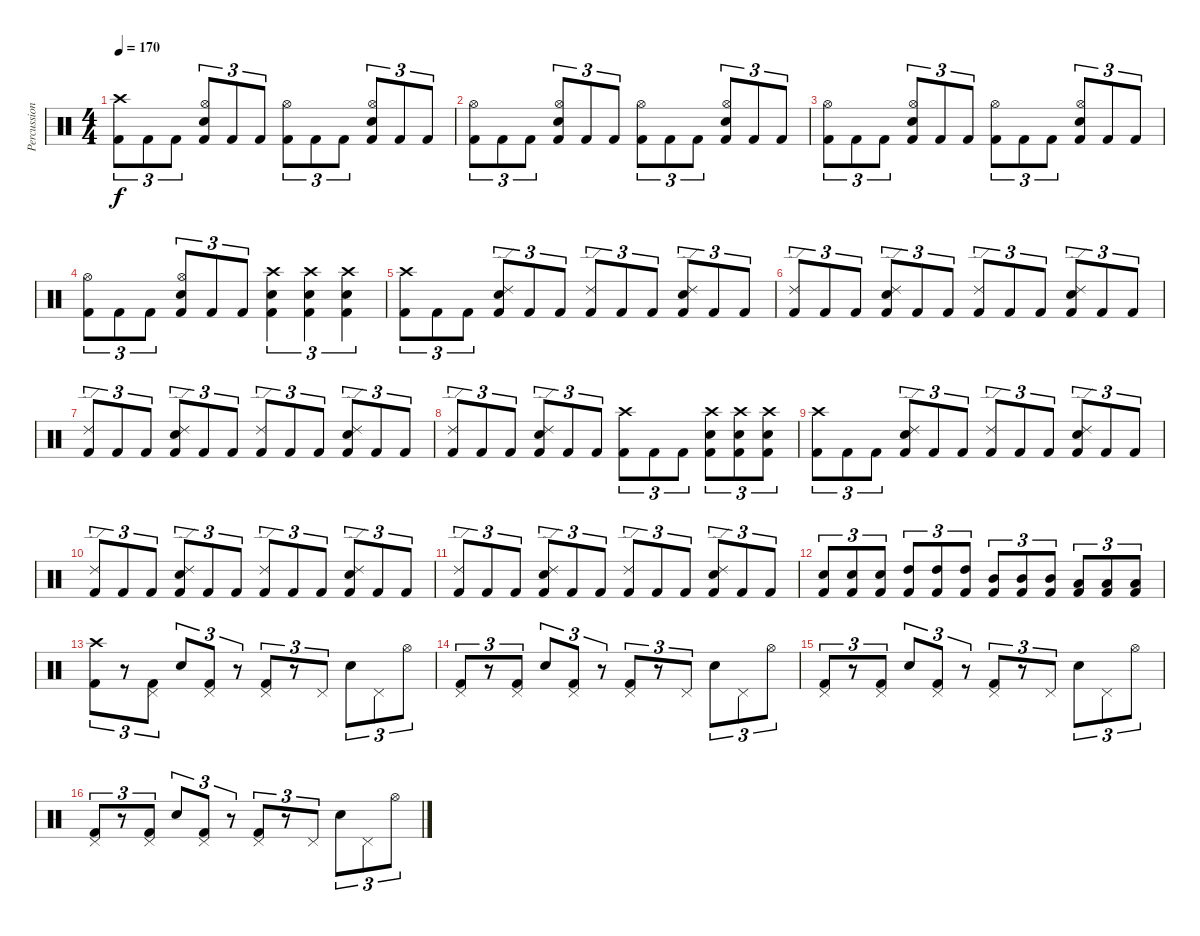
\track ("Percussion" "Percussion") {instrument percussion}
\staff {score}
\articulation defaults
\ts (4 4)
\tempo 170
\clef neutral
\ks c
("Crash high (hit)" "Kick (hit) 2").8{tu (3 2) dy f} "Kick (hit) 2".8{tu (3 2)} "Kick (hit) 2".8{tu (3 2)} ("Hi-Hat (open)" "Snare (hit) 2" "Kick (hit) 2").8{tu (3 2)} "Kick (hit) 2".8{tu (3 2)} "Kick (hit) 2".8{tu (3 2)} ("Hi-Hat (open)" "Kick (hit) 2").8{tu (3 2)} "Kick (hit) 2".8{tu (3 2)} "Kick (hit) 2".8{tu (3 2)} ("Hi-Hat (open)" "Snare (hit) 2" "Kick (hit) 2").8{tu (3 2)} "Kick (hit) 2".8{tu (3 2)} "Kick (hit) 2".8{tu (3 2)} |
("Hi-Hat (open)" "Kick (hit) 2").8{tu (3 2)} "Kick (hit) 2".8{tu (3 2)} "Kick (hit) 2".8{tu (3 2)} ("Hi-Hat (open)" "Snare (hit) 2" "Kick (hit) 2").8{tu (3 2)} "Kick (hit) 2".8{tu (3 2)} "Kick (hit) 2".8{tu (3 2)} ("Hi-Hat (open)" "Kick (hit) 2").8{tu (3 2)} "Kick (hit) 2".8{tu (3 2)} "Kick (hit) 2".8{tu (3 2)} ("Hi-Hat (open)" "Snare (hit) 2" "Kick (hit) 2").8{tu (3 2)} "Kick (hit) 2".8{tu (3 2)} "Kick (hit) 2".8{tu (3 2)} |
("Hi-Hat (open)" "Kick (hit) 2").8{tu (3 2)} "Kick (hit) 2".8{tu (3 2)} "Kick (hit) 2".8{tu (3 2)} ("Hi-Hat (open)" "Snare (hit) 2" "Kick (hit) 2").8{tu (3 2)} "Kick (hit) 2".8{tu (3 2)} "Kick (hit) 2".8{tu (3 2)} ("Hi-Hat (open)" "Kick (hit) 2").8{tu (3 2)} "Kick (hit) 2".8{tu (3 2)} "Kick (hit) 2".8{tu (3 2)} ("Hi-Hat (open)" "Snare (hit) 2" "Kick (hit) 2").8{tu (3 2)} "Kick (hit) 2".8{tu (3 2)} "Kick (hit) 2".8{tu (3 2)} |
("Hi-Hat (open)" "Kick (hit) 2").8{tu (3 2)} "Kick (hit) 2".8{tu (3 2)} "Kick (hit) 2".8{tu (3 2)} ("Hi-Hat (open)" "Snare (hit) 2" "Kick (hit) 2").8{tu (3 2)} "Kick (hit) 2".8{tu (3 2)} "Kick (hit) 2".8{tu (3 2)} ("Crash high (hit)" "Snare (hit) 2" "Kick (hit) 2").4{tu (3 2)} ("Crash high (hit)" "Snare (hit) 2" "Kick (hit) 2").4{tu (3 2)} ("Crash high (hit)" "Snare (hit) 2" "Kick (hit) 2").4{tu (3 2)} |
("Crash high (hit)" "Kick (hit) 2").8{tu (3 2)} "Kick (hit) 2".8{tu (3 2)} "Kick (hit) 2".8{tu (3 2)} ("Ride (edge) 2" "Snare (hit) 2" "Kick (hit) 2").8{tu (3 2)} "Kick (hit) 2".8{tu (3 2)} "Kick (hit) 2".8{tu (3 2)} ("Ride (edge) 2" "Kick (hit) 2").8{tu (3 2)} "Kick (hit) 2".8{tu (3 2)} "Kick (hit) 2".8{tu (3 2)} ("Ride (edge) 2" "Snare (hit) 2" "Kick (hit) 2").8{tu (3 2)} "Kick (hit) 2".8{tu (3 2)} "Kick (hit) 2".8{tu (3 2)} |
("Ride (edge) 2" "Kick (hit) 2").8{tu (3 2)} "Kick (hit) 2".8{tu (3 2)} "Kick (hit) 2".8{tu (3 2)} ("Ride (edge) 2" "Snare (hit) 2" "Kick (hit) 2").8{tu (3 2)} "Kick (hit) 2".8{tu (3 2)} "Kick (hit) 2".8{tu (3 2)} ("Ride (edge) 2" "Kick (hit) 2").8{tu (3 2)} "Kick (hit) 2".8{tu (3 2)} "Kick (hit) 2".8{tu (3 2)} ("Ride (edge) 2" "Snare (hit) 2" "Kick (hit) 2").8{tu (3 2)} "Kick (hit) 2".8{tu (3 2)} "Kick (hit) 2".8{tu (3 2)} |
("Ride (edge) 2" "Kick (hit) 2").8{tu (3 2)} "Kick (hit) 2".8{tu (3 2)} "Kick (hit) 2".8{tu (3 2)} ("Ride (edge) 2" "Snare (hit) 2" "Kick (hit) 2").8{tu (3 2)} "Kick (hit) 2".8{tu (3 2)} "Kick (hit) 2".8{tu (3 2)} ("Ride (edge) 2" "Kick (hit) 2").8{tu (3 2)} "Kick (hit) 2".8{tu (3 2)} "Kick (hit) 2".8{tu (3 2)} ("Ride (edge) 2" "Snare (hit) 2" "Kick (hit) 2").8{tu (3 2)} "Kick (hit) 2".8{tu (3 2)} "Kick (hit) 2".8{tu (3 2)} |
("Ride (edge) 2" "Kick (hit) 2").8{tu (3 2)} "Kick (hit) 2".8{tu (3 2)} "Kick (hit) 2".8{tu (3 2)} ("Ride (edge) 2" "Snare (hit) 2" "Kick (hit) 2").8{tu (3 2)} "Kick (hit) 2".8{tu (3 2)} "Kick (hit) 2".8{tu (3 2)} ("Crash high (hit)" "Kick (hit) 2").8{tu (3 2)} "Kick (hit) 2".8{tu (3 2)} "Kick (hit) 2".8{tu (3 2)} ("Crash high (hit)" "Snare (hit) 2" "Kick (hit) 2").8{tu (3 2)} ("Crash high (hit)" "Snare (hit) 2" "Kick (hit) 2").8{tu (3 2)} ("Crash high (hit)" "Snare (hit) 2" "Kick (hit) 2").8{tu (3 2)} |
("Crash high (hit)" "Kick (hit) 2").8{tu (3 2)} "Kick (hit) 2".8{tu (3 2)} "Kick (hit) 2".8{tu (3 2)} ("Ride (edge) 2" "Snare (hit) 2" "Kick (hit) 2").8{tu (3 2)} "Kick (hit) 2".8{tu (3 2)} "Kick (hit) 2".8{tu (3 2)} ("Ride (edge) 2" "Kick (hit) 2").8{tu (3 2)} "Kick (hit) 2".8{tu (3 2)} "Kick (hit) 2".8{tu (3 2)} ("Ride (edge) 2" "Snare (hit) 2" "Kick (hit) 2").8{tu (3 2)} "Kick (hit) 2".8{tu (3 2)} "Kick (hit) 2".8{tu (3 2)} |
("Ride (edge) 2" "Kick (hit) 2").8{tu (3 2)} "Kick (hit) 2".8{tu (3 2)} "Kick (hit) 2".8{tu (3 2)} ("Ride (edge) 2" "Snare (hit) 2" "Kick (hit) 2").8{tu (3 2)} "Kick (hit) 2".8{tu (3 2)} "Kick (hit) 2".8{tu (3 2)} ("Ride (edge) 2" "Kick (hit) 2").8{tu (3 2)} "Kick (hit) 2".8{tu (3 2)} "Kick (hit) 2".8{tu (3 2)} ("Ride (edge) 2" "Snare (hit) 2" "Kick (hit) 2").8{tu (3 2)} "Kick (hit) 2".8{tu (3 2)} "Kick (hit) 2".8{tu (3 2)} |
("Ride (edge) 2" "Kick (hit) 2").8{tu (3 2)} "Kick (hit) 2".8{tu (3 2)} "Kick (hit) 2".8{tu (3 2)} ("Ride (edge) 2" "Snare (hit) 2" "Kick (hit) 2").8{tu (3 2)} "Kick (hit) 2".8{tu (3 2)} "Kick (hit) 2".8{tu (3 2)} ("Ride (edge) 2" "Kick (hit) 2").8{tu (3 2)} "Kick (hit) 2".8{tu (3 2)} "Kick (hit) 2".8{tu (3 2)} ("Ride (edge) 2" "Snare (hit) 2" "Kick (hit) 2").8{tu (3 2)} "Kick (hit) 2".8{tu (3 2)} "Kick (hit) 2".8{tu (3 2)} |
("Snare (hit) 2" "Kick (hit) 2").8{tu (3 2)} ("Snare (hit) 2" "Kick (hit) 2").8{tu (3 2)} ("Snare (hit) 2" "Kick (hit) 2").8{tu (3 2)} ("High Tom (hit)" "Kick (hit) 2").8{tu (3 2)} ("High Tom (hit)" "Kick (hit) 2").8{tu (3 2)} ("High Tom (hit)" "Kick (hit) 2").8{tu (3 2)} ("Mid Tom (hit)" "Kick (hit) 2").8{tu (3 2)} ("Mid Tom (hit)" "Kick (hit) 2").8{tu (3 2)} ("Mid Tom (hit)" "Kick (hit) 2").8{tu (3 2)} ("Low Tom (hit)" "Kick (hit) 2").8{tu (3 2)} ("Low Tom (hit)" "Kick (hit) 2").8{tu (3 2)} ("Low Tom (hit)" "Kick (hit) 2").8{tu (3 2)} |
("Crash high (hit)" "Kick (hit) 2").8{tu (3 2)} r.8{tu (3 2)} ("Pedal Hi-Hat (hit)" "Kick (hit) 2").8{tu (3 2)} "Snare (hit) 2".8{tu (3 2)} ("Pedal Hi-Hat (hit)" "Kick (hit) 2").8{tu (3 2)} r.8{tu (3 2)} ("Pedal Hi-Hat (hit)" "Kick (hit) 2").8{tu (3 2)} r.8{tu (3 2)} "Pedal Hi-Hat (hit)".8{tu (3 2)} "Snare (hit) 2".8{tu (3 2)} "Pedal Hi-Hat (hit)".8{tu (3 2)} "Hi-Hat (open)".8{tu (3 2)} |
("Pedal Hi-Hat (hit)" "Kick (hit) 2").8{tu (3 2)} r.8{tu (3 2)} ("Pedal Hi-Hat (hit)" "Kick (hit) 2").8{tu (3 2)} "Snare (hit) 2".8{tu (3 2)} ("Pedal Hi-Hat (hit)" "Kick (hit) 2").8{tu (3 2)} r.8{tu (3 2)} ("Pedal Hi-Hat (hit)" "Kick (hit) 2").8{tu (3 2)} r.8{tu (3 2)} "Pedal Hi-Hat (hit)".8{tu (3 2)} "Snare (hit) 2".8{tu (3 2)} "Pedal Hi-Hat (hit)".8{tu (3 2)} "Hi-Hat (open)".8{tu (3 2)} |
("Pedal Hi-Hat (hit)" "Kick (hit) 2").8{tu (3 2)} r.8{tu (3 2)} ("Pedal Hi-Hat (hit)" "Kick (hit) 2").8{tu (3 2)} "Snare (hit) 2".8{tu (3 2)} ("Pedal Hi-Hat (hit)" "Kick (hit) 2").8{tu (3 2)} r.8{tu (3 2)} ("Pedal Hi-Hat (hit)" "Kick (hit) 2").8{tu (3 2)} r.8{tu (3 2)} "Pedal Hi-Hat (hit)".8{tu (3 2)} "Snare (hit) 2".8{tu (3 2)} "Pedal Hi-Hat (hit)".8{tu (3 2)} "Hi-Hat (open)".8{tu (3 2)} |
("Pedal Hi-Hat (hit)" "Kick (hit) 2").8{tu (3 2)} r.8{tu (3 2)} ("Pedal Hi-Hat (hit)" "Kick (hit) 2").8{tu (3 2)} "Snare (hit) 2".8{tu (3 2)} ("Pedal Hi-Hat (hit)" "Kick (hit) 2").8{tu (3 2)} r.8{tu (3 2)} ("Pedal Hi-Hat (hit)" "Kick (hit) 2").8{tu (3 2)} r.8{tu (3 2)} "Pedal Hi-Hat (hit)".8{tu (3 2)} "Snare (hit) 2".8{tu (3 2)} "Pedal Hi-Hat (hit)".8{tu (3 2)} "Hi-Hat (open)".8{tu (3 2)}
